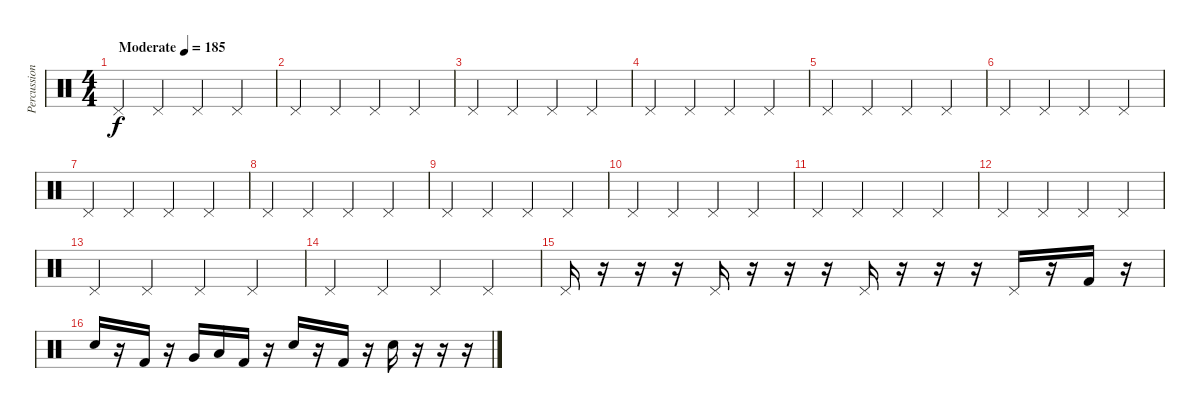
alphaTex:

\track ("Percussion" "Percussion") {instrument percussion}
\staff {score}
\articulation defaults
\ts (4 4)
\tempo (185 "Moderate")
\clef neutral
\ks c "Pedal Hi-Hat (hit)".4{dy f} "Pedal Hi-Hat (hit)".4 "Pedal Hi-Hat (hit)".4 "Pedal Hi-Hat (hit)".4
|
"Pedal Hi-Hat (hit)".4 "Pedal Hi-Hat (hit)".4 "Pedal Hi-Hat (hit)".4 "Pedal Hi-Hat (hit)".4 |
"Pedal Hi-Hat (hit)".4 "Pedal Hi-Hat (hit)".4 "Pedal Hi-Hat (hit)".4 "Pedal Hi-Hat (hit)".4 |
"Pedal Hi-Hat (hit)".4 "Pedal Hi-Hat (hit)".4 "Pedal Hi-Hat (hit)".4 "Pedal Hi-Hat (hit)".4 |
"Pedal Hi-Hat (hit)".4 "Pedal Hi-Hat (hit)".4 "Pedal Hi-Hat (hit)".4 "Pedal Hi-Hat (hit)".4 |
"Pedal Hi-Hat (hit)".4 "Pedal Hi-Hat (hit)".4 "Pedal Hi-Hat (hit)".4 "Pedal Hi-Hat (hit)".4 |
"Pedal Hi-Hat (hit)".4 "Pedal Hi-Hat (hit)".4 "Pedal Hi-Hat (hit)".4 "Pedal Hi-Hat (hit)".4 |
"Pedal Hi-Hat (hit)".4 "Pedal Hi-Hat (hit)".4 "Pedal Hi-Hat (hit)".4 "Pedal Hi-Hat (hit)".4 |
"Pedal Hi-Hat (hit)".4 "Pedal Hi-Hat (hit)".4 "Pedal Hi-Hat (hit)".4 "Pedal Hi-Hat (hit)".4 |
"Pedal Hi-Hat (hit)".4 "Pedal Hi-Hat (hit)".4 "Pedal Hi-Hat (hit)".4 "Pedal Hi-Hat (hit)".4 |
"Pedal Hi-Hat (hit)".4 "Pedal Hi-Hat (hit)".4 "Pedal Hi-Hat (hit)".4 "Pedal Hi-Hat (hit)".4 |
"Pedal Hi-Hat (hit)".4 "Pedal Hi-Hat (hit)".4 "Pedal Hi-Hat (hit)".4 "Pedal Hi-Hat (hit)".4 |
"Pedal Hi-Hat (hit)".4 "Pedal Hi-Hat (hit)".4 "Pedal Hi-Hat (hit)".4 "Pedal Hi-Hat (hit)".4 |
"Pedal Hi-Hat (hit)".4 "Pedal Hi-Hat (hit)".4 "Pedal Hi-Hat (hit)".4 "Pedal Hi-Hat (hit)".4 |
"Pedal Hi-Hat (hit)".16 r.16 r.16 r.16 "Pedal Hi-Hat (hit)".16 r.16 r.16 r.16 "Pedal Hi-Hat (hit)".16 r.16 r.16 r.16 "Pedal Hi-Hat (hit)".16 r.16 "Kick (hit) 2".16 r.16 |
"Electric Snare (hit)".16 r.16 "Kick (hit) 2".16 r.16 "Very Low Tom (hit)".16 "Low Floor Tom (hit)".16 "Kick (hit) 2".16 r.16 "Electric Snare (hit)".16 r.16 "Kick (hit) 2".16 r.16 "Electric Snare (hit)".16 r.16 r.16 r.16
